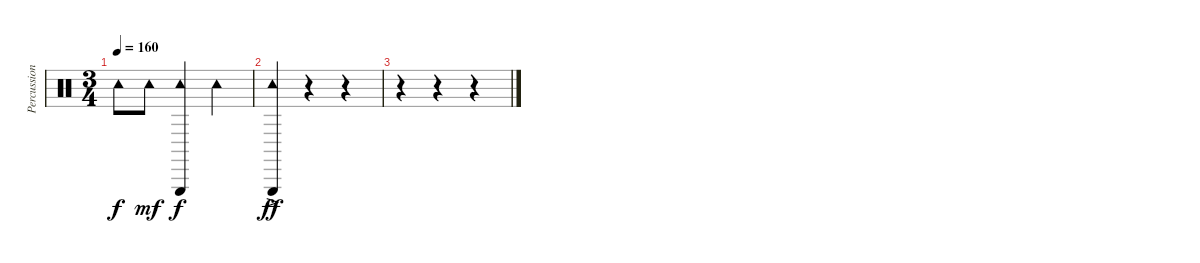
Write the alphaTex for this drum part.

\track ("Percussion" "Percussion") {instrument percussion}
\staff {score}
\articulation defaults
\ts (3 4)
\tempo 160
\clef neutral
\ks c "Tambourine (hit)".8{dy f} "Tambourine (hit)".8{dy mf}
("Tambourine (hit)" "Triangle (hit)").4{dy f} "Tambourine (hit)".4 |
("Tambourine (hit)"{ac} "Triangle (hit)").4{dy ff} r.4 r.4 |
r.4 r.4 r.4
